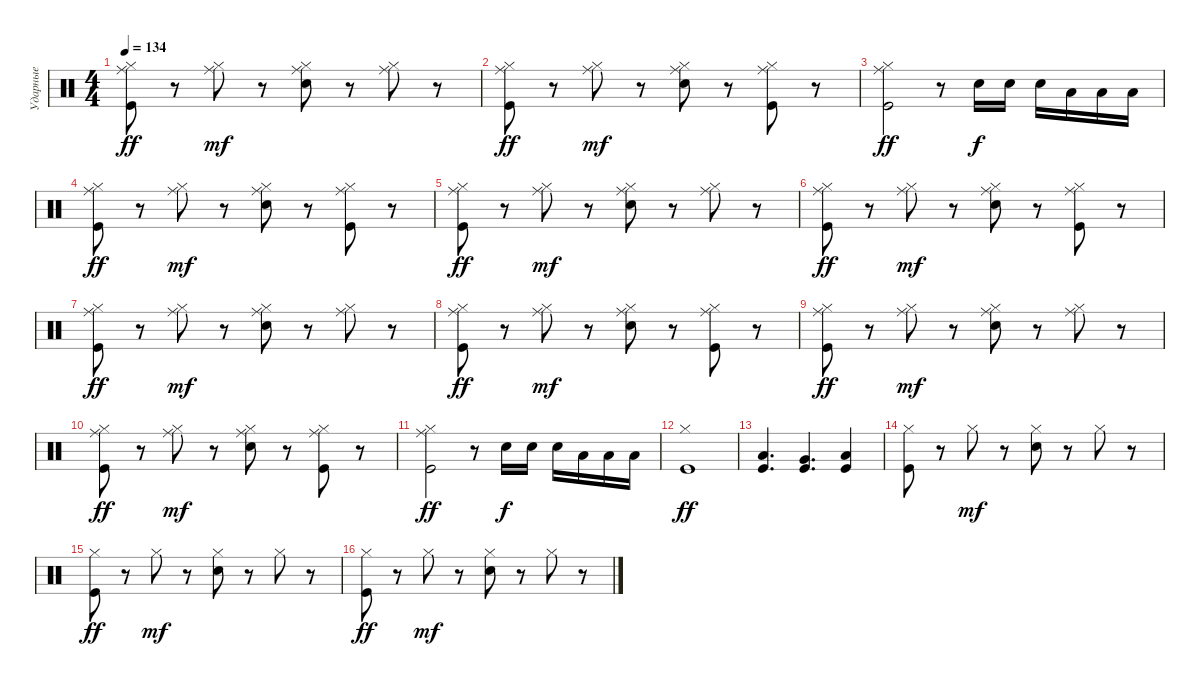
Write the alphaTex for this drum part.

\track ("Ударные" "Ударные") {instrument percussion}
\staff {score}
\articulation defaults
\ts (4 4)
\tempo 134
\clef neutral
\ks c
("Kick (hit)" "Hi-Hat (closed)" "Ride (middle)").8{dy ff} r.8 ("Hi-Hat (closed)" "Ride (middle)").8{dy mf} r.8 ("Hi-Hat (closed)" "Snare (hit) 2" "Ride (middle)").8 r.8 ("Hi-Hat (closed)" "Ride (middle)").8 r.8 |
("Kick (hit)" "Hi-Hat (closed)" "Ride (middle)").8{dy ff} r.8 ("Hi-Hat (closed)" "Ride (middle)").8{dy mf} r.8 ("Hi-Hat (closed)" "Snare (hit) 2" "Ride (middle)").8 r.8 ("Hi-Hat (closed)" "Kick (hit)" "Ride (middle)").8 r.8 |
("Kick (hit)" "Hi-Hat (closed)" "Ride (middle)").2{dy ff} r.8 "Snare (hit) 2".16{dy f} "Snare (hit) 2".16 "Snare (hit) 2".16 "Low Floor Tom (hit)".16 "Low Floor Tom (hit)".16 "Low Floor Tom (hit)".16 |
("Kick (hit)" "Hi-Hat (closed)" "Ride (middle)").8{dy ff} r.8 ("Hi-Hat (closed)" "Ride (middle)").8{dy mf} r.8 ("Hi-Hat (closed)" "Snare (hit) 2" "Ride (middle)").8 r.8 ("Hi-Hat (closed)" "Kick (hit)" "Ride (middle)").8 r.8 |
("Kick (hit)" "Hi-Hat (closed)" "Ride (middle)").8{dy ff} r.8 ("Hi-Hat (closed)" "Ride (middle)").8{dy mf} r.8 ("Hi-Hat (closed)" "Snare (hit) 2" "Ride (middle)").8 r.8 ("Hi-Hat (closed)" "Ride (middle)").8 r.8 |
("Kick (hit)" "Hi-Hat (closed)" "Ride (middle)").8{dy ff} r.8 ("Hi-Hat (closed)" "Ride (middle)").8{dy mf} r.8 ("Hi-Hat (closed)" "Snare (hit) 2" "Ride (middle)").8 r.8 ("Hi-Hat (closed)" "Kick (hit)" "Ride (middle)").8 r.8 |
("Kick (hit)" "Hi-Hat (closed)" "Ride (middle)").8{dy ff} r.8 ("Hi-Hat (closed)" "Ride (middle)").8{dy mf} r.8 ("Hi-Hat (closed)" "Snare (hit) 2" "Ride (middle)").8 r.8 ("Hi-Hat (closed)" "Ride (middle)").8 r.8 |
("Kick (hit)" "Hi-Hat (closed)" "Ride (middle)").8{dy ff} r.8 ("Hi-Hat (closed)" "Ride (middle)").8{dy mf} r.8 ("Hi-Hat (closed)" "Snare (hit) 2" "Ride (middle)").8 r.8 ("Hi-Hat (closed)" "Kick (hit)" "Ride (middle)").8 r.8 |
("Kick (hit)" "Hi-Hat (closed)" "Ride (middle)").8{dy ff} r.8 ("Hi-Hat (closed)" "Ride (middle)").8{dy mf} r.8 ("Hi-Hat (closed)" "Snare (hit) 2" "Ride (middle)").8 r.8 ("Hi-Hat (closed)" "Ride (middle)").8 r.8 |
("Kick (hit)" "Hi-Hat (closed)" "Ride (middle)").8{dy ff} r.8 ("Hi-Hat (closed)" "Ride (middle)").8{dy mf} r.8 ("Hi-Hat (closed)" "Snare (hit) 2" "Ride (middle)").8 r.8 ("Hi-Hat (closed)" "Kick (hit)" "Ride (middle)").8 r.8 |
("Kick (hit)" "Hi-Hat (closed)" "Ride (middle)").2{dy ff} r.8 "Snare (hit) 2".16{dy f} "Snare (hit) 2".16 "Snare (hit) 2".16 "Low Floor Tom (hit)".16 "Low Floor Tom (hit)".16 "Low Floor Tom (hit)".16 |
("Kick (hit)" "Hi-Hat (closed)").1{dy ff} |
("Low Tom (hit)" "Kick (hit)").4{d} ("Very Low Tom (hit)" "Kick (hit)").4{d} ("Low Floor Tom (hit)" "Kick (hit)").4 |
("Kick (hit)" "Hi-Hat (closed)").8 r.8 "Hi-Hat (closed)".8{dy mf} r.8 ("Hi-Hat (closed)" "Snare (hit) 2").8 r.8 "Hi-Hat (closed)".8 r.8 |
("Kick (hit)" "Hi-Hat (closed)").8{dy ff} r.8 "Hi-Hat (closed)".8{dy mf} r.8 ("Hi-Hat (closed)" "Snare (hit) 2").8 r.8 "Hi-Hat (closed)".8 r.8 |
("Kick (hit)" "Hi-Hat (closed)").8{dy ff} r.8 "Hi-Hat (closed)".8{dy mf} r.8 ("Hi-Hat (closed)" "Snare (hit) 2").8 r.8 "Hi-Hat (closed)".8 r.8
